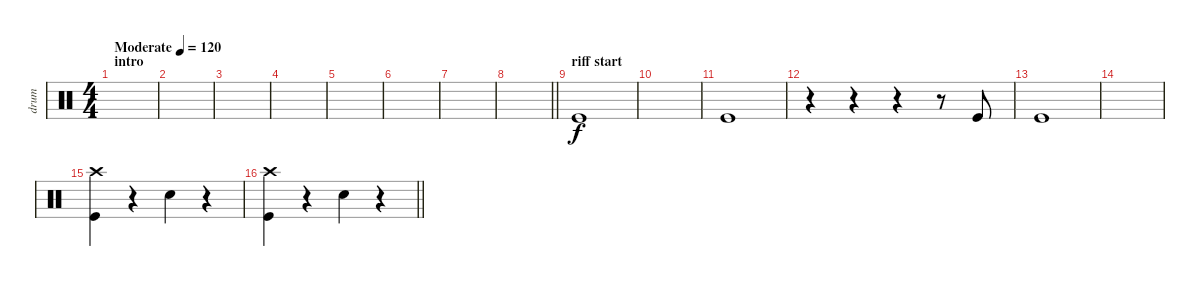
\track ("drum" "drum") {instrument percussion}
\staff {score}
\articulation defaults
\ts (4 4)
\section ("" "intro")
\tempo (120 "Moderate")
\clef neutral
\ks c
|
|
|
|
|
|
|
\barLineRight lightlight
|
\section ("" "riff start")
"Kick (hit)".1 |
|
"Kick (hit)".1 |
r.4 r.4 r.4 r.8 "Kick (hit)".8 |
"Kick (hit)".1 |
|
("Crash high (hit)" "Kick (hit)").4 r.4 "Hand Clap (hit)".4 r.4 |
\barLineRight lightlight
("Crash high (hit)" "Kick (hit)").4 r.4 "Hand Clap (hit)".4 r.4
